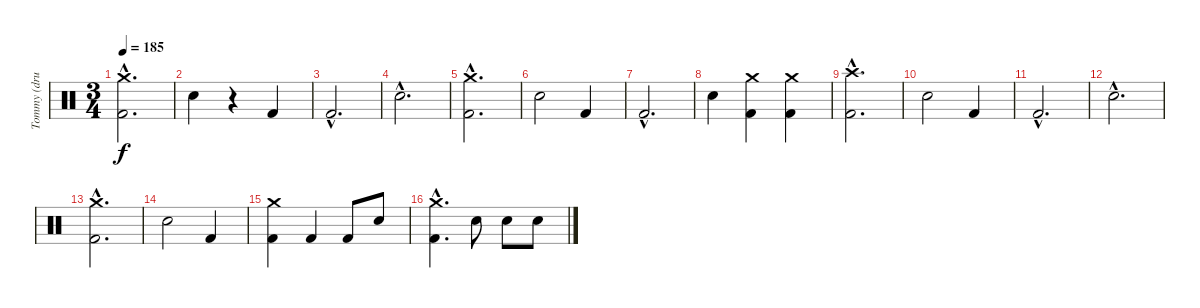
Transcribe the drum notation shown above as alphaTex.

\track ("Tommy (drums)" "Tommy (dru") {instrument percussion}
\staff {score}
\articulation defaults
\ts (3 4)
\tempo 185
\clef neutral
\ks c
("Crash medium (hit)"{hac} "Kick (hit) 2"{hac}).2{d dy f} |
"Electric Snare (hit)".4 r.4 "Kick (hit) 2".4 |
"Kick (hit) 2"{hac}.2{d} |
"Electric Snare (hit)"{hac}.2{d} |
("Crash medium (hit)"{hac} "Kick (hit) 2"{hac}).2{d} |
"Electric Snare (hit)".2 "Kick (hit) 2".4 |
"Kick (hit) 2"{hac}.2{d} |
"Electric Snare (hit)".4 ("Crash medium (hit)" "Kick (hit) 2").4 ("Crash medium (hit)" "Kick (hit) 2").4 |
("Crash high (hit)"{hac} "Kick (hit) 2"{hac}).2{d} |
"Electric Snare (hit)".2 "Kick (hit) 2".4 |
"Kick (hit) 2"{hac}.2{d} |
"Electric Snare (hit)"{hac}.2{d} |
("Crash medium (hit)"{hac} "Kick (hit) 2"{hac}).2{d} |
"Electric Snare (hit)".2 "Kick (hit) 2".4 |
("Crash medium (hit)" "Kick (hit) 2").4 "Kick (hit) 2".4 "Kick (hit) 2".8 "Electric Snare (hit)".8 |
("Crash medium (hit)"{hac} "Kick (hit) 2"{hac}).4{d} "Electric Snare (hit)".8 "Electric Snare (hit)".8 "Electric Snare (hit)".8
